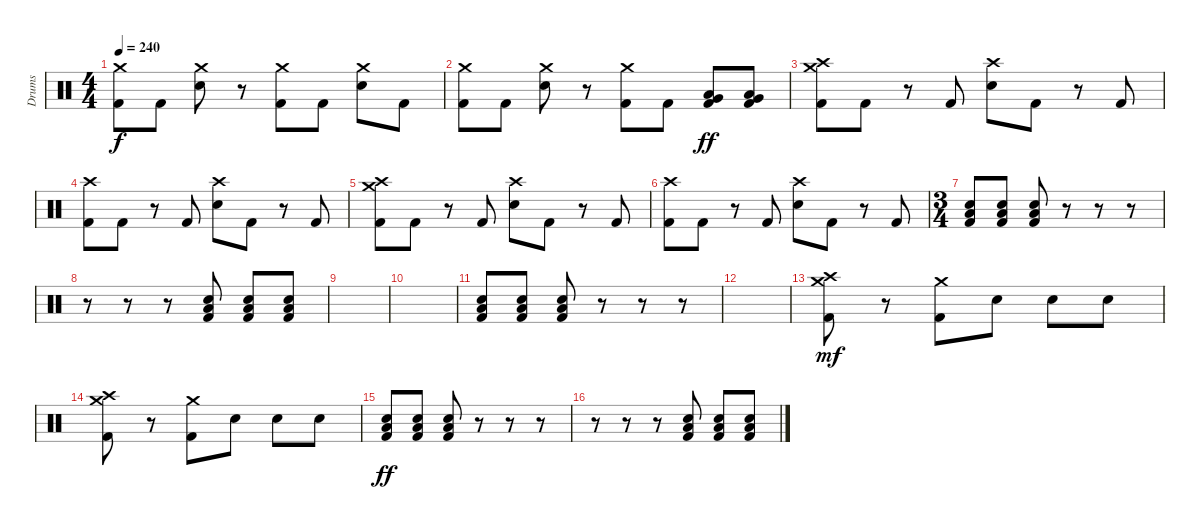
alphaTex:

\track ("Drums" "Drums") {instrument percussion}
\staff {score}
\articulation defaults
\ts (4 4)
\tempo 240
\clef neutral
\ks c
("Crash medium (hit)" "Kick (hit) 2").8{dy f} "Kick (hit) 2".8 ("Crash medium (hit)" "Electric Snare (hit)").8 r.8 ("Crash medium (hit)" "Kick (hit) 2").8 "Kick (hit) 2".8 ("Crash medium (hit)" "Electric Snare (hit)").8 "Kick (hit) 2".8 |
("Crash medium (hit)" "Kick (hit) 2").8 "Kick (hit) 2".8 ("Crash medium (hit)" "Electric Snare (hit)").8 r.8 ("Crash medium (hit)" "Kick (hit) 2").8 "Kick (hit) 2".8 ("Very Low Tom (hit)" "Low Floor Tom (hit)" "Kick (hit) 2").8{dy ff} ("Very Low Tom (hit)" "Low Floor Tom (hit)" "Kick (hit) 2").8 |
("Crash high (hit)" "Crash medium (hit)" "Kick (hit) 2").8 "Kick (hit) 2".8 r.8 "Kick (hit) 2".8 ("Crash high (hit)" "Electric Snare (hit)").8 "Kick (hit) 2".8 r.8 "Kick (hit) 2".8 |
("Crash high (hit)" "Kick (hit) 2").8 "Kick (hit) 2".8 r.8 "Kick (hit) 2".8 ("Crash high (hit)" "Electric Snare (hit)").8 "Kick (hit) 2".8 r.8 "Kick (hit) 2".8 |
("Crash high (hit)" "Crash medium (hit)" "Kick (hit) 2").8 "Kick (hit) 2".8 r.8 "Kick (hit) 2".8 ("Crash high (hit)" "Electric Snare (hit)").8 "Kick (hit) 2".8 r.8 "Kick (hit) 2".8 |
("Crash high (hit)" "Kick (hit) 2").8 "Kick (hit) 2".8 r.8 "Kick (hit) 2".8 ("Crash high (hit)" "Electric Snare (hit)").8 "Kick (hit) 2".8 r.8 "Kick (hit) 2".8 |
\ts (3 4)
("Electric Snare (hit)" "Low Floor Tom (hit)" "Kick (hit) 2").8 ("Electric Snare (hit)" "Low Floor Tom (hit)" "Kick (hit) 2").8 ("Electric Snare (hit)" "Low Floor Tom (hit)" "Kick (hit) 2").8 r.8 r.8 r.8 |
r.8 r.8 r.8 ("Electric Snare (hit)" "Low Floor Tom (hit)" "Kick (hit) 2").8 ("Electric Snare (hit)" "Low Floor Tom (hit)" "Kick (hit) 2").8 ("Electric Snare (hit)" "Low Floor Tom (hit)" "Kick (hit) 2").8 |
|
|
("Electric Snare (hit)" "Low Floor Tom (hit)" "Kick (hit) 2").8 ("Electric Snare (hit)" "Low Floor Tom (hit)" "Kick (hit) 2").8 ("Electric Snare (hit)" "Low Floor Tom (hit)" "Kick (hit) 2").8 r.8 r.8 r.8 |
|
("Crash high (hit)" "Crash medium (hit)" "Kick (hit) 2").8{dy mf} r.8 ("Crash medium (hit)" "Kick (hit) 2").8 "Electric Snare (hit)".8 "Electric Snare (hit)".8 "Electric Snare (hit)".8 |
("Crash high (hit)" "Crash medium (hit)" "Kick (hit) 2").8 r.8 ("Crash medium (hit)" "Kick (hit) 2").8 "Electric Snare (hit)".8 "Electric Snare (hit)".8 "Electric Snare (hit)".8 |
("Electric Snare (hit)" "Low Floor Tom (hit)" "Kick (hit) 2").8{dy ff} ("Electric Snare (hit)" "Low Floor Tom (hit)" "Kick (hit) 2").8 ("Electric Snare (hit)" "Low Floor Tom (hit)" "Kick (hit) 2").8 r.8 r.8 r.8 |
r.8 r.8 r.8 ("Electric Snare (hit)" "Low Floor Tom (hit)" "Kick (hit) 2").8 ("Electric Snare (hit)" "Low Floor Tom (hit)" "Kick (hit) 2").8 ("Electric Snare (hit)" "Low Floor Tom (hit)" "Kick (hit) 2").8
